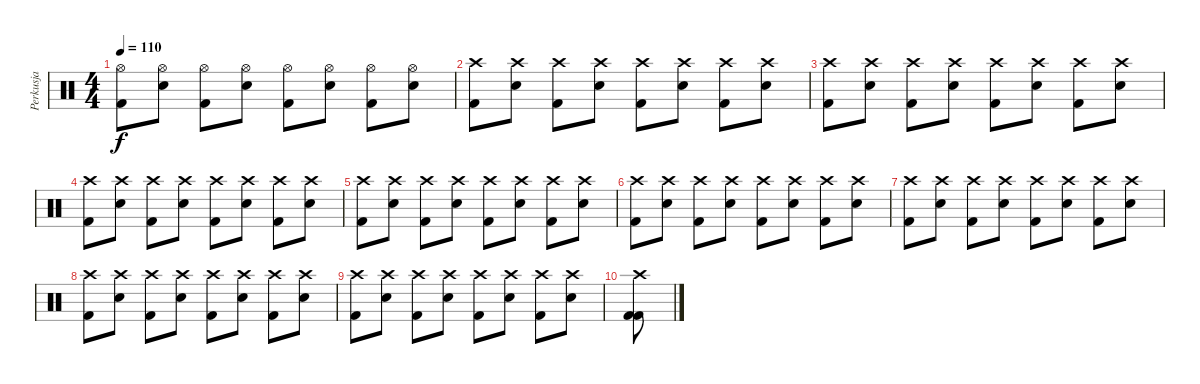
\track ("Perkusja" "Perkusja") {instrument percussion}
\staff {score}
\articulation defaults
\ts (4 4)
\tempo 110
\clef neutral
\ks c
("Hi-Hat (open)" "Kick (hit) 2").8{dy f} ("Hi-Hat (open)" "Electric Snare (hit)").8 ("Hi-Hat (open)" "Kick (hit) 2").8 ("Hi-Hat (open)" "Electric Snare (hit)").8 ("Hi-Hat (open)" "Kick (hit) 2").8 ("Hi-Hat (open)" "Electric Snare (hit)").8 ("Hi-Hat (open)" "Kick (hit) 2").8 ("Hi-Hat (open)" "Electric Snare (hit)").8 |
("Crash high (hit)" "Kick (hit) 2").8 ("Crash high (hit)" "Electric Snare (hit)").8 ("Crash high (hit)" "Kick (hit) 2").8 ("Crash high (hit)" "Electric Snare (hit)").8 ("Crash high (hit)" "Kick (hit) 2").8 ("Crash high (hit)" "Electric Snare (hit)").8 ("Crash high (hit)" "Kick (hit) 2").8 ("Crash high (hit)" "Electric Snare (hit)").8 |
("Crash high (hit)" "Kick (hit) 2").8 ("Crash high (hit)" "Electric Snare (hit)").8 ("Crash high (hit)" "Kick (hit) 2").8 ("Crash high (hit)" "Electric Snare (hit)").8 ("Crash high (hit)" "Kick (hit) 2").8 ("Crash high (hit)" "Electric Snare (hit)").8 ("Crash high (hit)" "Kick (hit) 2").8 ("Crash high (hit)" "Electric Snare (hit)").8 |
("Crash high (hit)" "Kick (hit) 2").8 ("Crash high (hit)" "Electric Snare (hit)").8 ("Crash high (hit)" "Kick (hit) 2").8 ("Crash high (hit)" "Electric Snare (hit)").8 ("Crash high (hit)" "Kick (hit) 2").8 ("Crash high (hit)" "Electric Snare (hit)").8 ("Crash high (hit)" "Kick (hit) 2").8 ("Crash high (hit)" "Electric Snare (hit)").8 |
("Crash high (hit)" "Kick (hit) 2").8 ("Crash high (hit)" "Electric Snare (hit)").8 ("Crash high (hit)" "Kick (hit) 2").8 ("Crash high (hit)" "Electric Snare (hit)").8 ("Crash high (hit)" "Kick (hit) 2").8 ("Crash high (hit)" "Electric Snare (hit)").8 ("Crash high (hit)" "Kick (hit) 2").8 ("Crash high (hit)" "Electric Snare (hit)").8 |
("Crash high (hit)" "Kick (hit) 2").8 ("Crash high (hit)" "Electric Snare (hit)").8 ("Crash high (hit)" "Kick (hit) 2").8 ("Crash high (hit)" "Electric Snare (hit)").8 ("Crash high (hit)" "Kick (hit) 2").8 ("Crash high (hit)" "Electric Snare (hit)").8 ("Crash high (hit)" "Kick (hit) 2").8 ("Crash high (hit)" "Electric Snare (hit)").8 |
("Crash high (hit)" "Kick (hit) 2").8 ("Crash high (hit)" "Electric Snare (hit)").8 ("Crash high (hit)" "Kick (hit) 2").8 ("Crash high (hit)" "Electric Snare (hit)").8 ("Crash high (hit)" "Kick (hit) 2").8 ("Crash high (hit)" "Electric Snare (hit)").8 ("Crash high (hit)" "Kick (hit) 2").8 ("Crash high (hit)" "Electric Snare (hit)").8 |
("Crash high (hit)" "Kick (hit) 2").8 ("Crash high (hit)" "Electric Snare (hit)").8 ("Crash high (hit)" "Kick (hit) 2").8 ("Crash high (hit)" "Electric Snare (hit)").8 ("Crash high (hit)" "Kick (hit) 2").8 ("Crash high (hit)" "Electric Snare (hit)").8 ("Crash high (hit)" "Kick (hit) 2").8 ("Crash high (hit)" "Electric Snare (hit)").8 |
("Crash high (hit)" "Kick (hit) 2").8 ("Crash high (hit)" "Electric Snare (hit)").8 ("Crash high (hit)" "Kick (hit) 2").8 ("Crash high (hit)" "Electric Snare (hit)").8 ("Crash high (hit)" "Kick (hit) 2").8 ("Crash high (hit)" "Electric Snare (hit)").8 ("Crash high (hit)" "Kick (hit) 2").8 ("Crash high (hit)" "Electric Snare (hit)").8 |
("Crash high (hit)" "Kick (hit) 2" "Kick (hit) 2").8
